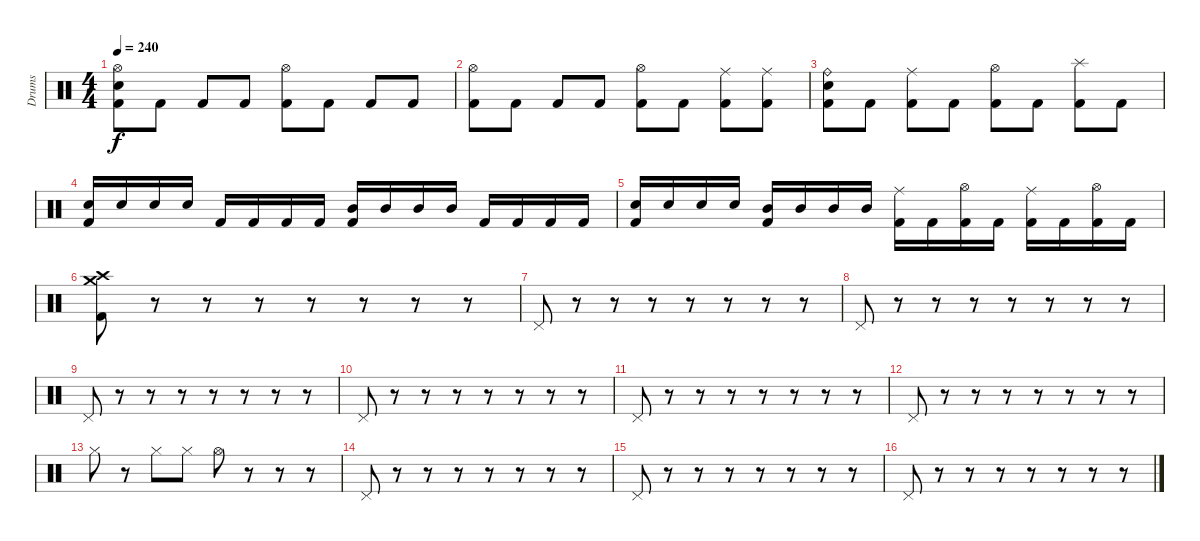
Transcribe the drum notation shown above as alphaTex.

\track ("Drums" "Drums") {instrument percussion}
\staff
\articulation defaults
\ts (4 4)
\tempo 240
\clef neutral
\ks c
("Hi-Hat (open)" "Electric Snare (hit)" "Kick (hit) 2").8{dy f} "Kick (hit) 2".8 "Kick (hit) 2".8 "Kick (hit) 2".8 ("Hi-Hat (open)" "Kick (hit) 2").8 "Kick (hit) 2".8 "Kick (hit) 2".8 "Kick (hit) 2".8 |
("Hi-Hat (open)" "Kick (hit) 2").8 "Kick (hit) 2".8 "Kick (hit) 2".8 "Kick (hit) 2".8 ("Hi-Hat (open)" "Kick (hit) 2").8 "Kick (hit) 2".8 ("Ride (middle)" "Kick (hit) 2").8 ("Ride (middle)" "Kick (hit) 2").8 |
("Ride (bell)" "Electric Snare (hit)" "Kick (hit) 2").8 "Kick (hit) 2".8 ("Ride (middle)" "Kick (hit) 2").8 "Kick (hit) 2".8 ("Hi-Hat (open)" "Kick (hit) 2").8 "Kick (hit) 2".8 ("Splash (hit)" "Kick (hit) 2").8 "Kick (hit) 2".8 |
("Electric Snare (hit)" "Kick (hit) 2").16 "Electric Snare (hit)".16 "Electric Snare (hit)".16 "Electric Snare (hit)".16 "Kick (hit) 2".16 "Kick (hit) 2".16 "Kick (hit) 2".16 "Kick (hit) 2".16 ("Mid Tom (hit)" "Kick (hit) 2").16 "Mid Tom (hit)".16 "Mid Tom (hit)".16 "Mid Tom (hit)".16 "Kick (hit) 2".16 "Kick (hit) 2".16 "Kick (hit) 2".16 "Kick (hit) 2".16 |
("Electric Snare (hit)" "Kick (hit) 2").16 "Electric Snare (hit)".16 "Electric Snare (hit)".16 "Electric Snare (hit)".16 ("Mid Tom (hit)" "Kick (hit) 2").16 "Mid Tom (hit)".16 "Mid Tom (hit)".16 "Mid Tom (hit)".16 ("Ride (middle)" "Kick (hit) 2").16 "Kick (hit) 2".16 ("Hi-Hat (open)" "Kick (hit) 2").16 "Kick (hit) 2".16 ("Ride (middle)" "Kick (hit) 2").16 "Kick (hit) 2".16 ("Hi-Hat (open)" "Kick (hit) 2").16 "Kick (hit) 2".16 |
("Crash medium (hit)" "Crash high (hit)" "Kick (hit) 2").8 r.8 r.8 r.8 r.8 r.8 r.8 r.8 |
"Pedal Hi-Hat (hit)".8 r.8 r.8 r.8 r.8 r.8 r.8 r.8 |
"Pedal Hi-Hat (hit)".8 r.8 r.8 r.8 r.8 r.8 r.8 r.8 |
"Pedal Hi-Hat (hit)".8 r.8 r.8 r.8 r.8 r.8 r.8 r.8 |
"Pedal Hi-Hat (hit)".8 r.8 r.8 r.8 r.8 r.8 r.8 r.8 |
"Pedal Hi-Hat (hit)".8 r.8 r.8 r.8 r.8 r.8 r.8 r.8 |
"Pedal Hi-Hat (hit)".8 r.8 r.8 r.8 r.8 r.8 r.8 r.8 |
"Hi-Hat (closed)".8 r.8 "Hi-Hat (closed)".8 "Hi-Hat (closed)".8 "Hi-Hat (open)".8 r.8 r.8 r.8 |
"Pedal Hi-Hat (hit)".8 r.8 r.8 r.8 r.8 r.8 r.8 r.8 |
"Pedal Hi-Hat (hit)".8 r.8 r.8 r.8 r.8 r.8 r.8 r.8 |
"Pedal Hi-Hat (hit)".8 r.8 r.8 r.8 r.8 r.8 r.8 r.8
